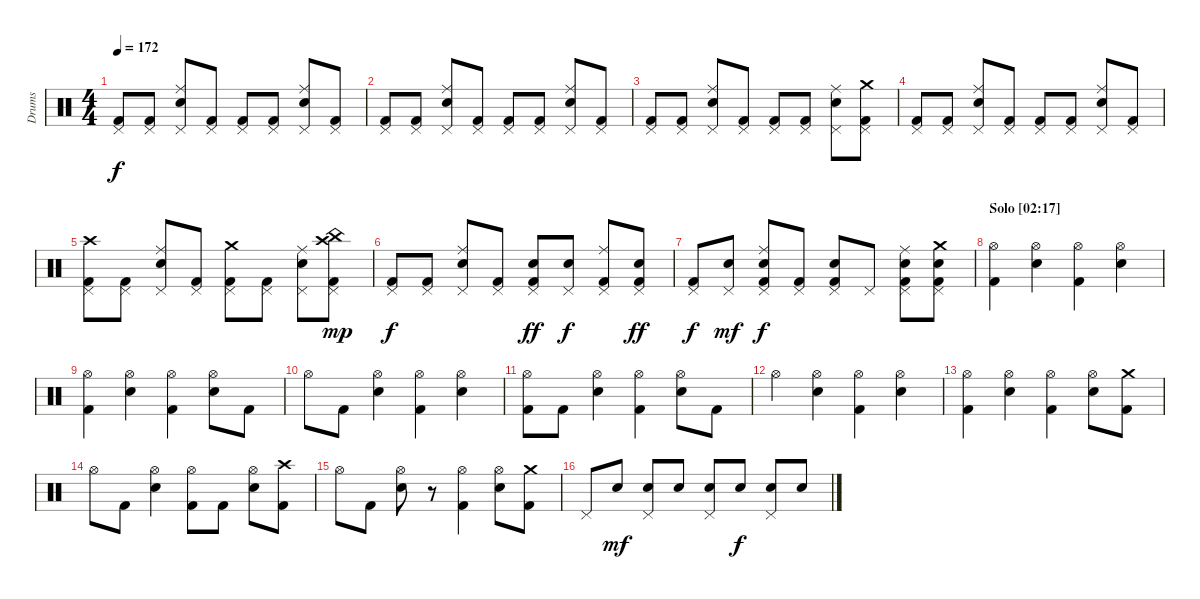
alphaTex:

\track ("Drums" "Drums") {instrument percussion}
\staff {score}
\articulation defaults
\ts (4 4)
\tempo 172
\clef neutral
\ks c
("Pedal Hi-Hat (hit)" "Kick (hit) 2").8{dy f} ("Pedal Hi-Hat (hit)" "Kick (hit) 2").8 ("Pedal Hi-Hat (hit)" "Ride (middle)" "Electric Snare (hit)").8 ("Pedal Hi-Hat (hit)" "Kick (hit) 2").8 ("Pedal Hi-Hat (hit)" "Kick (hit) 2").8 ("Pedal Hi-Hat (hit)" "Kick (hit) 2").8 ("Pedal Hi-Hat (hit)" "Ride (middle)" "Electric Snare (hit)").8 ("Pedal Hi-Hat (hit)" "Kick (hit) 2").8 |
("Pedal Hi-Hat (hit)" "Kick (hit) 2").8 ("Pedal Hi-Hat (hit)" "Kick (hit) 2").8 ("Pedal Hi-Hat (hit)" "Ride (middle)" "Electric Snare (hit)").8 ("Pedal Hi-Hat (hit)" "Kick (hit) 2").8 ("Pedal Hi-Hat (hit)" "Kick (hit) 2").8 ("Pedal Hi-Hat (hit)" "Kick (hit) 2").8 ("Pedal Hi-Hat (hit)" "Ride (middle)" "Electric Snare (hit)").8 ("Pedal Hi-Hat (hit)" "Kick (hit) 2").8 |
("Pedal Hi-Hat (hit)" "Kick (hit) 2").8 ("Pedal Hi-Hat (hit)" "Kick (hit) 2").8 ("Pedal Hi-Hat (hit)" "Ride (middle)" "Electric Snare (hit)").8 ("Pedal Hi-Hat (hit)" "Kick (hit) 2").8 ("Pedal Hi-Hat (hit)" "Kick (hit) 2").8 ("Pedal Hi-Hat (hit)" "Kick (hit) 2").8 ("Pedal Hi-Hat (hit)" "Ride (middle)" "Electric Snare (hit)").8 ("Pedal Hi-Hat (hit)" "Crash medium (hit)" "Kick (hit) 2").8 |
("Pedal Hi-Hat (hit)" "Kick (hit) 2").8 ("Pedal Hi-Hat (hit)" "Kick (hit) 2").8 ("Pedal Hi-Hat (hit)" "Ride (middle)" "Electric Snare (hit)").8 ("Pedal Hi-Hat (hit)" "Kick (hit) 2").8 ("Pedal Hi-Hat (hit)" "Kick (hit) 2").8 ("Pedal Hi-Hat (hit)" "Kick (hit) 2").8 ("Pedal Hi-Hat (hit)" "Ride (middle)" "Electric Snare (hit)").8 ("Pedal Hi-Hat (hit)" "Kick (hit) 2").8 |
("Pedal Hi-Hat (hit)" "Crash high (hit)" "Kick (hit) 2").8 ("Pedal Hi-Hat (hit)" "Kick (hit) 2").8 ("Pedal Hi-Hat (hit)" "Ride (middle)" "Electric Snare (hit)").8 ("Pedal Hi-Hat (hit)" "Kick (hit) 2").8 ("Pedal Hi-Hat (hit)" "Crash medium (hit)" "Kick (hit) 2").8 ("Pedal Hi-Hat (hit)" "Kick (hit) 2").8 ("Pedal Hi-Hat (hit)" "Ride (middle)" "Electric Snare (hit)").8 ("Pedal Hi-Hat (hit)" "Crash high (hit)" "China (hit)" "Kick (hit) 2").8{dy mp} |
("Pedal Hi-Hat (hit)" "Kick (hit) 2").8{dy f} ("Pedal Hi-Hat (hit)" "Kick (hit) 2").8 ("Pedal Hi-Hat (hit)" "Ride (middle)" "Electric Snare (hit)").8 ("Pedal Hi-Hat (hit)" "Kick (hit) 2").8 ("Pedal Hi-Hat (hit)" "Electric Snare (hit)" "Kick (hit) 2").8{dy ff} ("Pedal Hi-Hat (hit)" "Electric Snare (hit)").8{dy f} ("Pedal Hi-Hat (hit)" "Ride (middle)" "Kick (hit) 2").8 ("Pedal Hi-Hat (hit)" "Electric Snare (hit)" "Kick (hit) 2").8{dy ff} |
("Pedal Hi-Hat (hit)" "Kick (hit) 2").8{dy f} ("Pedal Hi-Hat (hit)" "Electric Snare (hit)").8{dy mf} ("Pedal Hi-Hat (hit)" "Ride (middle)" "Electric Snare (hit)" "Kick (hit) 2").8{dy f} ("Pedal Hi-Hat (hit)" "Kick (hit) 2").8 ("Pedal Hi-Hat (hit)" "Electric Snare (hit)" "Kick (hit) 2").8 "Pedal Hi-Hat (hit)".8 ("Pedal Hi-Hat (hit)" "Ride (middle)" "Electric Snare (hit)" "Kick (hit) 2").8 ("Pedal Hi-Hat (hit)" "Crash medium (hit)" "Electric Snare (hit)" "Kick (hit) 2").8 |
\section ("" "Solo [02:17]")
("Hi-Hat (open)" "Kick (hit) 2").4 ("Hi-Hat (open)" "Electric Snare (hit)").4 ("Hi-Hat (open)" "Kick (hit) 2").4 ("Hi-Hat (open)" "Electric Snare (hit)").4 |
("Hi-Hat (open)" "Kick (hit) 2").4 ("Hi-Hat (open)" "Electric Snare (hit)").4 ("Hi-Hat (open)" "Kick (hit) 2").4 ("Hi-Hat (open)" "Electric Snare (hit)").8 "Kick (hit) 2".8 |
"Hi-Hat (open)".8 "Kick (hit) 2".8 ("Hi-Hat (open)" "Electric Snare (hit)").4 ("Hi-Hat (open)" "Kick (hit) 2").4 ("Hi-Hat (open)" "Electric Snare (hit)").4 |
("Hi-Hat (open)" "Kick (hit) 2").8 "Kick (hit) 2".8 ("Hi-Hat (open)" "Electric Snare (hit)").4 ("Hi-Hat (open)" "Kick (hit) 2").4 ("Hi-Hat (open)" "Electric Snare (hit)").8 "Kick (hit) 2".8 |
"Hi-Hat (open)".4 ("Hi-Hat (open)" "Electric Snare (hit)").4 ("Hi-Hat (open)" "Kick (hit) 2").4 ("Hi-Hat (open)" "Electric Snare (hit)").4 |
("Hi-Hat (open)" "Kick (hit) 2").4 ("Hi-Hat (open)" "Electric Snare (hit)").4 ("Hi-Hat (open)" "Kick (hit) 2").4 ("Hi-Hat (open)" "Electric Snare (hit)").8 ("Crash medium (hit)" "Kick (hit) 2").8 |
"Hi-Hat (open)".8 "Kick (hit) 2".8 ("Hi-Hat (open)" "Electric Snare (hit)").4 ("Hi-Hat (open)" "Kick (hit) 2").8 "Kick (hit) 2".8 ("Hi-Hat (open)" "Electric Snare (hit)").8 ("Crash high (hit)" "Kick (hit) 2").8 |
"Hi-Hat (open)".8 "Kick (hit) 2".8 ("Hi-Hat (open)" "Electric Snare (hit)").8 r.8 ("Hi-Hat (open)" "Kick (hit) 2").4 ("Hi-Hat (open)" "Electric Snare (hit)").8 ("Crash medium (hit)" "Kick (hit) 2").8 |
"Pedal Hi-Hat (hit)".8 "Electric Snare (hit)".8{dy mf} ("Pedal Hi-Hat (hit)" "Electric Snare (hit)").8 "Electric Snare (hit)".8 ("Pedal Hi-Hat (hit)" "Electric Snare (hit)").8 "Electric Snare (hit)".8{dy f} ("Pedal Hi-Hat (hit)" "Electric Snare (hit)").8 "Electric Snare (hit)".8
